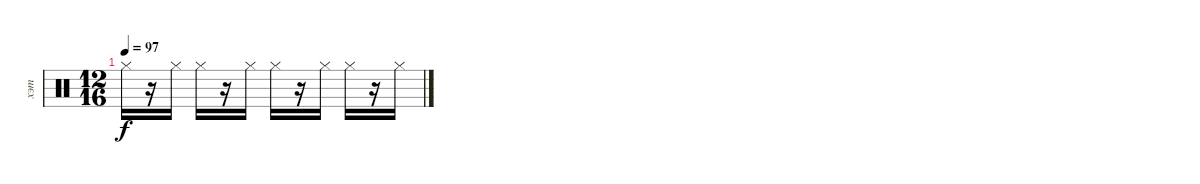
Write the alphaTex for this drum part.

\track ("хэт" "хэт") {instrument percussion}
\staff {score}
\articulation defaults
\ts (12 16)
\tempo 97
\clef neutral
\ks c "Hi-Hat (closed)".16{dy f}
r.16 "Hi-Hat (closed)".16 "Hi-Hat (closed)".16 r.16 "Hi-Hat (closed)".16 "Hi-Hat (closed)".16 r.16 "Hi-Hat (closed)".16 "Hi-Hat (closed)".16 r.16 "Hi-Hat (closed)".16
